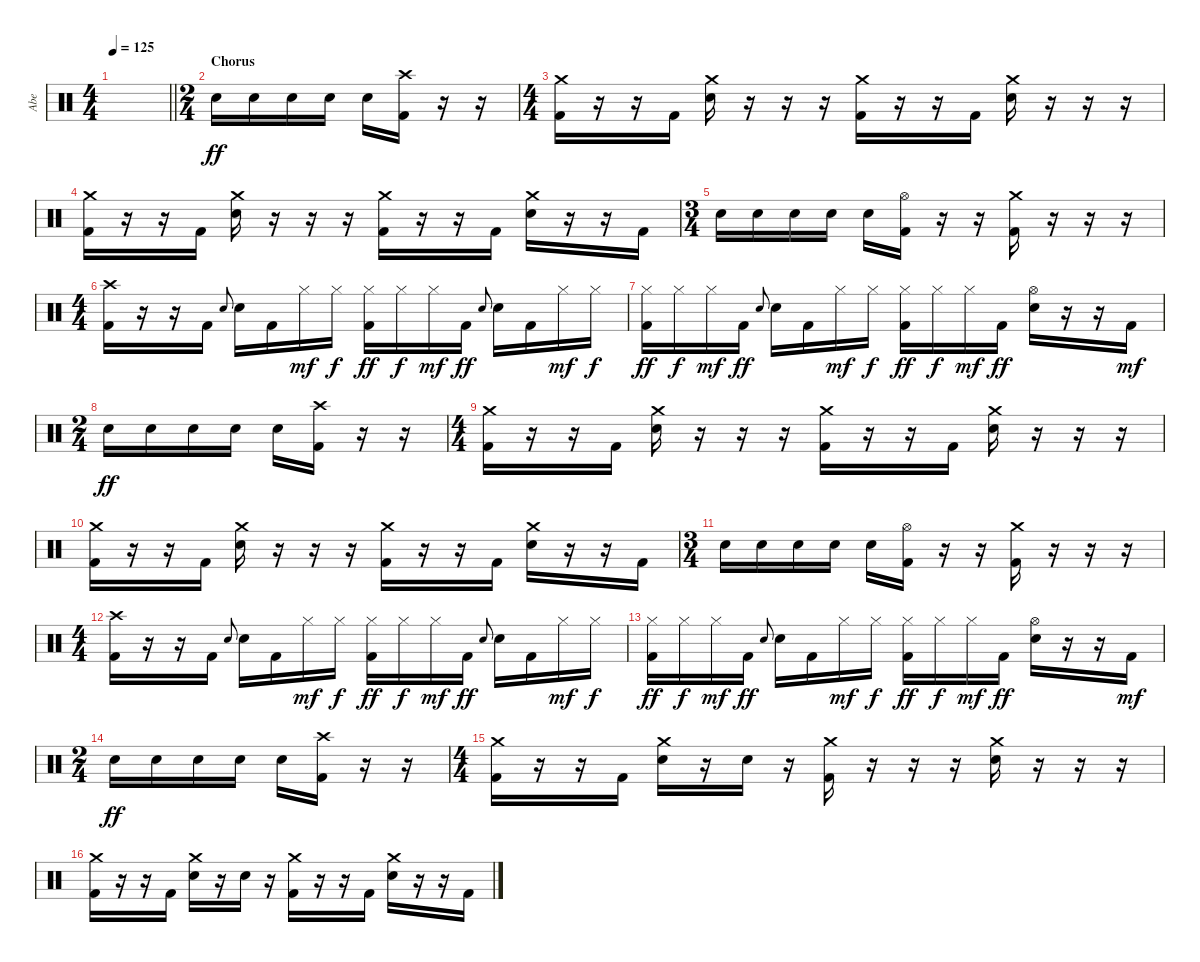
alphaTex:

\track ("Abe" "Abe") {instrument percussion}
\staff {score}
\articulation defaults
\ts (4 4)
\tempo 125
\clef neutral
\barLineRight lightlight
\ks c
|
\ts (2 4)
\section ("" "Chorus")
"Electric Snare (hit)".16{dy ff} "Electric Snare (hit)".16 "Electric Snare (hit)".16 "Electric Snare (hit)".16 "Electric Snare (hit)".16 ("Crash high (hit)" "Kick (hit) 2").16 r.16 r.16 |
\ts (4 4)
("Crash medium (hit)" "Kick (hit) 2").16 r.16 r.16 "Kick (hit) 2".16 ("Crash medium (hit)" "Electric Snare (hit)").16 r.16 r.16 r.16 ("Crash medium (hit)" "Kick (hit) 2").16 r.16 r.16 "Kick (hit) 2".16 ("Crash medium (hit)" "Electric Snare (hit)").16 r.16 r.16 r.16 |
("Crash medium (hit)" "Kick (hit) 2").16 r.16 r.16 "Kick (hit) 2".16 ("Crash medium (hit)" "Electric Snare (hit)").16 r.16 r.16 r.16 ("Crash medium (hit)" "Kick (hit) 2").16 r.16 r.16 "Kick (hit) 2".16 ("Crash medium (hit)" "Electric Snare (hit)").16 r.16 r.16 "Kick (hit) 2".16 |
\ts (3 4)
"Electric Snare (hit)".16 "Electric Snare (hit)".16 "Electric Snare (hit)".16 "Electric Snare (hit)".16 "Electric Snare (hit)".16 ("Hi-Hat (open)" "Kick (hit) 2").16 r.16 r.16 ("Crash medium (hit)" "Kick (hit) 2").16 r.16 r.16 r.16 |
\ts (4 4)
("Crash high (hit)" "Kick (hit) 2").16 r.16 r.16 "Kick (hit) 2".16 "Electric Snare (hit)".8{gr onbeat} "Electric Snare (hit)".16 "Kick (hit) 2".16 "Hi-Hat (closed)".16{dy mf} "Hi-Hat (closed)".16{dy f} ("Hi-Hat (closed)" "Kick (hit) 2").16{dy ff} "Hi-Hat (closed)".16{dy f} "Hi-Hat (closed)".16{dy mf} "Kick (hit) 2".16{dy ff} "Electric Snare (hit)".8{gr onbeat} "Electric Snare (hit)".16 "Kick (hit) 2".16 "Hi-Hat (closed)".16{dy mf} "Hi-Hat (closed)".16{dy f} |
("Hi-Hat (closed)" "Kick (hit) 2").16{dy ff} "Hi-Hat (closed)".16{dy f} "Hi-Hat (closed)".16{dy mf} "Kick (hit) 2".16{dy ff} "Electric Snare (hit)".8{gr onbeat} "Electric Snare (hit)".16 "Kick (hit) 2".16 "Hi-Hat (closed)".16{dy mf} "Hi-Hat (closed)".16{dy f} ("Hi-Hat (closed)" "Kick (hit) 2").16{dy ff} "Hi-Hat (closed)".16{dy f} "Hi-Hat (closed)".16{dy mf} "Kick (hit) 2".16{dy ff} ("Hi-Hat (open)" "Electric Snare (hit)").16 r.16 r.16 "Kick (hit) 2".16{dy mf} |
\ts (2 4)
"Electric Snare (hit)".16{dy ff} "Electric Snare (hit)".16 "Electric Snare (hit)".16 "Electric Snare (hit)".16 "Electric Snare (hit)".16 ("Crash high (hit)" "Kick (hit) 2").16 r.16 r.16 |
\ts (4 4)
("Crash medium (hit)" "Kick (hit) 2").16 r.16 r.16 "Kick (hit) 2".16 ("Crash medium (hit)" "Electric Snare (hit)").16 r.16 r.16 r.16 ("Crash medium (hit)" "Kick (hit) 2").16 r.16 r.16 "Kick (hit) 2".16 ("Crash medium (hit)" "Electric Snare (hit)").16 r.16 r.16 r.16 |
("Crash medium (hit)" "Kick (hit) 2").16 r.16 r.16 "Kick (hit) 2".16 ("Crash medium (hit)" "Electric Snare (hit)").16 r.16 r.16 r.16 ("Crash medium (hit)" "Kick (hit) 2").16 r.16 r.16 "Kick (hit) 2".16 ("Crash medium (hit)" "Electric Snare (hit)").16 r.16 r.16 "Kick (hit) 2".16 |
\ts (3 4)
"Electric Snare (hit)".16 "Electric Snare (hit)".16 "Electric Snare (hit)".16 "Electric Snare (hit)".16 "Electric Snare (hit)".16 ("Hi-Hat (open)" "Kick (hit) 2").16 r.16 r.16 ("Crash medium (hit)" "Kick (hit) 2").16 r.16 r.16 r.16 |
\ts (4 4)
("Crash high (hit)" "Kick (hit) 2").16 r.16 r.16 "Kick (hit) 2".16 "Electric Snare (hit)".8{gr onbeat} "Electric Snare (hit)".16 "Kick (hit) 2".16 "Hi-Hat (closed)".16{dy mf} "Hi-Hat (closed)".16{dy f} ("Hi-Hat (closed)" "Kick (hit) 2").16{dy ff} "Hi-Hat (closed)".16{dy f} "Hi-Hat (closed)".16{dy mf} "Kick (hit) 2".16{dy ff} "Electric Snare (hit)".8{gr onbeat} "Electric Snare (hit)".16 "Kick (hit) 2".16 "Hi-Hat (closed)".16{dy mf} "Hi-Hat (closed)".16{dy f} |
("Hi-Hat (closed)" "Kick (hit) 2").16{dy ff} "Hi-Hat (closed)".16{dy f} "Hi-Hat (closed)".16{dy mf} "Kick (hit) 2".16{dy ff} "Electric Snare (hit)".8{gr onbeat} "Electric Snare (hit)".16 "Kick (hit) 2".16 "Hi-Hat (closed)".16{dy mf} "Hi-Hat (closed)".16{dy f} ("Hi-Hat (closed)" "Kick (hit) 2").16{dy ff} "Hi-Hat (closed)".16{dy f} "Hi-Hat (closed)".16{dy mf} "Kick (hit) 2".16{dy ff} ("Hi-Hat (open)" "Electric Snare (hit)").16 r.16 r.16 "Kick (hit) 2".16{dy mf} |
\ts (2 4)
"Electric Snare (hit)".16{dy ff} "Electric Snare (hit)".16 "Electric Snare (hit)".16 "Electric Snare (hit)".16 "Electric Snare (hit)".16 ("Crash high (hit)" "Kick (hit) 2").16 r.16 r.16 |
\ts (4 4)
("Crash medium (hit)" "Kick (hit) 2").16 r.16 r.16 "Kick (hit) 2".16 ("Crash medium (hit)" "Electric Snare (hit)").16 r.16 "Electric Snare (hit)".16 r.16 ("Crash medium (hit)" "Kick (hit) 2").16 r.16 r.16 r.16 ("Crash medium (hit)" "Electric Snare (hit)").16 r.16 r.16 r.16 |
("Crash medium (hit)" "Kick (hit) 2").16 r.16 r.16 "Kick (hit) 2".16 ("Crash medium (hit)" "Electric Snare (hit)").16 r.16 "Electric Snare (hit)".16 r.16 ("Crash medium (hit)" "Kick (hit) 2").16 r.16 r.16 "Kick (hit) 2".16 ("Crash medium (hit)" "Electric Snare (hit)").16 r.16 r.16 "Kick (hit) 2".16
